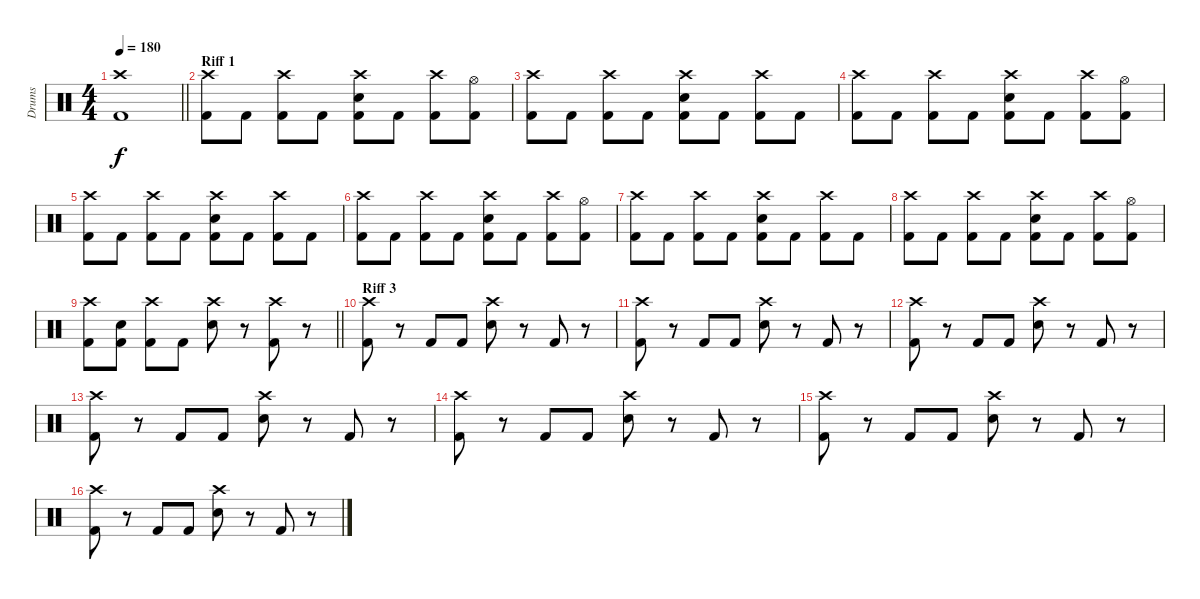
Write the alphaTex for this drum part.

\track ("Drums" "Drums") {instrument percussion}
\staff {score}
\articulation defaults
\ts (4 4)
\tempo 180
\clef neutral
\barLineRight lightlight
\ks c
("Crash high (hit)" "Kick (hit) 2").1{dy f} |
\section ("" "Riff 1")
("Crash high (hit)" "Kick (hit) 2").8 "Kick (hit) 2".8 ("Crash high (hit)" "Kick (hit) 2").8 "Kick (hit) 2".8 ("Crash high (hit)" "Snare (hit) 2" "Kick (hit) 2").8 "Kick (hit) 2".8 ("Crash high (hit)" "Kick (hit) 2").8 ("Hi-Hat (open)" "Kick (hit) 2").8 |
("Crash high (hit)" "Kick (hit) 2").8 "Kick (hit) 2".8 ("Crash high (hit)" "Kick (hit) 2").8 "Kick (hit) 2".8 ("Crash high (hit)" "Snare (hit) 2" "Kick (hit) 2").8 "Kick (hit) 2".8 ("Crash high (hit)" "Kick (hit) 2").8 "Kick (hit) 2".8 |
("Crash high (hit)" "Kick (hit) 2").8 "Kick (hit) 2".8 ("Crash high (hit)" "Kick (hit) 2").8 "Kick (hit) 2".8 ("Crash high (hit)" "Snare (hit) 2" "Kick (hit) 2").8 "Kick (hit) 2".8 ("Crash high (hit)" "Kick (hit) 2").8 ("Hi-Hat (open)" "Kick (hit) 2").8 |
("Crash high (hit)" "Kick (hit) 2").8 "Kick (hit) 2".8 ("Crash high (hit)" "Kick (hit) 2").8 "Kick (hit) 2".8 ("Crash high (hit)" "Snare (hit) 2" "Kick (hit) 2").8 "Kick (hit) 2".8 ("Crash high (hit)" "Kick (hit) 2").8 "Kick (hit) 2".8 |
("Crash high (hit)" "Kick (hit) 2").8 "Kick (hit) 2".8 ("Crash high (hit)" "Kick (hit) 2").8 "Kick (hit) 2".8 ("Crash high (hit)" "Snare (hit) 2" "Kick (hit) 2").8 "Kick (hit) 2".8 ("Crash high (hit)" "Kick (hit) 2").8 ("Hi-Hat (open)" "Kick (hit) 2").8 |
("Crash high (hit)" "Kick (hit) 2").8 "Kick (hit) 2".8 ("Crash high (hit)" "Kick (hit) 2").8 "Kick (hit) 2".8 ("Crash high (hit)" "Snare (hit) 2" "Kick (hit) 2").8 "Kick (hit) 2".8 ("Crash high (hit)" "Kick (hit) 2").8 "Kick (hit) 2".8 |
("Crash high (hit)" "Kick (hit) 2").8 "Kick (hit) 2".8 ("Crash high (hit)" "Kick (hit) 2").8 "Kick (hit) 2".8 ("Crash high (hit)" "Snare (hit) 2" "Kick (hit) 2").8 "Kick (hit) 2".8 ("Crash high (hit)" "Kick (hit) 2").8 ("Hi-Hat (open)" "Kick (hit) 2").8 |
\barLineRight lightlight
("Crash high (hit)" "Kick (hit) 2").8 ("Snare (hit) 2" "Kick (hit) 2").8 ("Crash high (hit)" "Kick (hit) 2").8 "Kick (hit) 2".8 ("Crash high (hit)" "Snare (hit) 2").8 r.8 ("Crash high (hit)" "Kick (hit) 2").8 r.8 |
\section ("" "Riff 3")
("Crash high (hit)" "Kick (hit) 2").8 r.8 "Kick (hit) 2".8 "Kick (hit) 2".8 ("Crash high (hit)" "Snare (hit) 2").8 r.8 "Kick (hit) 2".8 r.8 |
("Crash high (hit)" "Kick (hit) 2").8 r.8 "Kick (hit) 2".8 "Kick (hit) 2".8 ("Crash high (hit)" "Snare (hit) 2").8 r.8 "Kick (hit) 2".8 r.8 |
("Crash high (hit)" "Kick (hit) 2").8 r.8 "Kick (hit) 2".8 "Kick (hit) 2".8 ("Crash high (hit)" "Snare (hit) 2").8 r.8 "Kick (hit) 2".8 r.8 |
("Crash high (hit)" "Kick (hit) 2").8 r.8 "Kick (hit) 2".8 "Kick (hit) 2".8 ("Crash high (hit)" "Snare (hit) 2").8 r.8 "Kick (hit) 2".8 r.8 |
("Crash high (hit)" "Kick (hit) 2").8 r.8 "Kick (hit) 2".8 "Kick (hit) 2".8 ("Crash high (hit)" "Snare (hit) 2").8 r.8 "Kick (hit) 2".8 r.8 |
("Crash high (hit)" "Kick (hit) 2").8 r.8 "Kick (hit) 2".8 "Kick (hit) 2".8 ("Crash high (hit)" "Snare (hit) 2").8 r.8 "Kick (hit) 2".8 r.8 |
("Crash high (hit)" "Kick (hit) 2").8 r.8 "Kick (hit) 2".8 "Kick (hit) 2".8 ("Crash high (hit)" "Snare (hit) 2").8 r.8 "Kick (hit) 2".8 r.8
